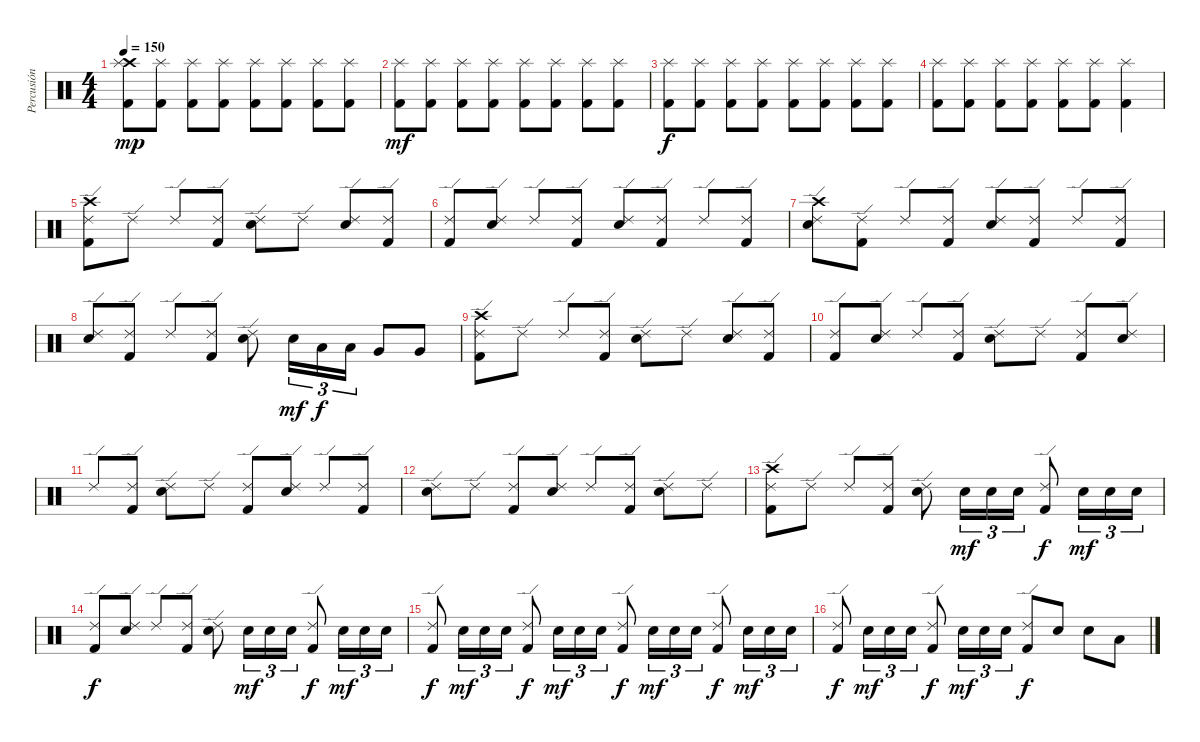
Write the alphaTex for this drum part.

\track ("Percusión" "Percusión") {instrument percussion}
\staff {score}
\articulation defaults
\ts (4 4)
\tempo 150
\clef neutral
\ks c
("Crash high (hit)" "Splash (hit)" "Kick (hit) 2").8{dy mp} ("Splash (hit)" "Kick (hit) 2").8 ("Splash (hit)" "Kick (hit) 2").8 ("Splash (hit)" "Kick (hit) 2").8 ("Splash (hit)" "Kick (hit) 2").8 ("Splash (hit)" "Kick (hit) 2").8 ("Splash (hit)" "Kick (hit) 2").8 ("Splash (hit)" "Kick (hit) 2").8 |
("Splash (hit)" "Kick (hit) 2").8{dy mf} ("Splash (hit)" "Kick (hit) 2").8 ("Splash (hit)" "Kick (hit) 2").8 ("Splash (hit)" "Kick (hit) 2").8 ("Splash (hit)" "Kick (hit) 2").8 ("Splash (hit)" "Kick (hit) 2").8 ("Splash (hit)" "Kick (hit) 2").8 ("Splash (hit)" "Kick (hit) 2").8 |
("Splash (hit)" "Kick (hit) 2").8{dy f} ("Splash (hit)" "Kick (hit) 2").8 ("Splash (hit)" "Kick (hit) 2").8 ("Splash (hit)" "Kick (hit) 2").8 ("Splash (hit)" "Kick (hit) 2").8 ("Splash (hit)" "Kick (hit) 2").8 ("Splash (hit)" "Kick (hit) 2").8 ("Splash (hit)" "Kick (hit) 2").8 |
("Splash (hit)" "Kick (hit) 2").8 ("Splash (hit)" "Kick (hit) 2").8 ("Splash (hit)" "Kick (hit) 2").8 ("Splash (hit)" "Kick (hit) 2").8 ("Splash (hit)" "Kick (hit) 2").8 ("Splash (hit)" "Kick (hit) 2").8 ("Splash (hit)" "Kick (hit) 2").4 |
("Crash high (hit)" "Ride (edge) 2" "Kick (hit) 2").8 "Ride (edge) 2".8 "Ride (edge) 2".8 ("Ride (edge) 2" "Kick (hit) 2").8 ("Ride (edge) 2" "Snare (hit) 2").8 "Ride (edge) 2".8 ("Ride (edge) 2" "Snare (hit) 2").8 ("Ride (edge) 2" "Kick (hit) 2").8 |
("Ride (edge) 2" "Kick (hit) 2").8 ("Ride (edge) 2" "Snare (hit) 2").8 "Ride (edge) 2".8 ("Ride (edge) 2" "Kick (hit) 2").8 ("Ride (edge) 2" "Snare (hit) 2").8 ("Ride (edge) 2" "Kick (hit) 2").8 "Ride (edge) 2".8 ("Ride (edge) 2" "Kick (hit) 2").8 |
("Crash high (hit)" "Ride (edge) 2" "Snare (hit) 2").8 ("Ride (edge) 2" "Kick (hit) 2").8 "Ride (edge) 2".8 ("Ride (edge) 2" "Kick (hit) 2").8 ("Ride (edge) 2" "Snare (hit) 2").8 ("Ride (edge) 2" "Kick (hit) 2").8 "Ride (edge) 2".8 ("Ride (edge) 2" "Kick (hit) 2").8 |
("Ride (edge) 2" "Snare (hit) 2").8 ("Ride (edge) 2" "Kick (hit) 2").8 "Ride (edge) 2".8 ("Ride (edge) 2" "Kick (hit) 2").8 ("Ride (edge) 2" "Snare (hit) 2").8 "Snare (hit) 2".16{tu (3 2) dy mf} "Low Tom (hit)".16{tu (3 2) dy f} "Low Tom (hit)".16{tu (3 2)} "Very Low Tom (hit)".8 "Very Low Tom (hit)".8 |
("Crash high (hit)" "Ride (edge) 2" "Kick (hit) 2").8 "Ride (edge) 2".8 "Ride (edge) 2".8 ("Ride (edge) 2" "Kick (hit) 2").8 ("Ride (edge) 2" "Snare (hit) 2").8 "Ride (edge) 2".8 ("Ride (edge) 2" "Snare (hit) 2").8 ("Ride (edge) 2" "Kick (hit) 2").8 |
("Ride (edge) 2" "Kick (hit) 2").8 ("Ride (edge) 2" "Snare (hit) 2").8 "Ride (edge) 2".8 ("Ride (edge) 2" "Kick (hit) 2").8 ("Ride (edge) 2" "Snare (hit) 2").8 "Ride (edge) 2".8 ("Ride (edge) 2" "Kick (hit) 2").8 ("Ride (edge) 2" "Snare (hit) 2").8 |
"Ride (edge) 2".8 ("Ride (edge) 2" "Kick (hit) 2").8 ("Ride (edge) 2" "Snare (hit) 2").8 "Ride (edge) 2".8 ("Ride (edge) 2" "Kick (hit) 2").8 ("Ride (edge) 2" "Snare (hit) 2").8 "Ride (edge) 2".8 ("Ride (edge) 2" "Kick (hit) 2").8 |
("Ride (edge) 2" "Snare (hit) 2").8 "Ride (edge) 2".8 ("Ride (edge) 2" "Kick (hit) 2").8 ("Ride (edge) 2" "Snare (hit) 2").8 "Ride (edge) 2".8 ("Ride (edge) 2" "Kick (hit) 2").8 ("Ride (edge) 2" "Snare (hit) 2").8 "Ride (edge) 2".8 |
("Crash high (hit)" "Ride (edge) 2" "Kick (hit) 2").8 "Ride (edge) 2".8 "Ride (edge) 2".8 ("Ride (edge) 2" "Kick (hit) 2").8 ("Ride (edge) 2" "Snare (hit) 2").8 "Snare (hit) 2".16{tu (3 2) dy mf} "Snare (hit) 2".16{tu (3 2)} "Snare (hit) 2".16{tu (3 2)} ("Ride (edge) 2" "Kick (hit) 2").8{dy f} "Snare (hit) 2".16{tu (3 2) dy mf} "Snare (hit) 2".16{tu (3 2)} "Snare (hit) 2".16{tu (3 2)} |
("Ride (edge) 2" "Kick (hit) 2").8{dy f} ("Ride (edge) 2" "Snare (hit) 2").8 "Ride (edge) 2".8 ("Ride (edge) 2" "Kick (hit) 2").8 ("Ride (edge) 2" "Snare (hit) 2").8 "Snare (hit) 2".16{tu (3 2) dy mf} "Snare (hit) 2".16{tu (3 2)} "Snare (hit) 2".16{tu (3 2)} ("Ride (edge) 2" "Kick (hit) 2").8{dy f} "Snare (hit) 2".16{tu (3 2) dy mf} "Snare (hit) 2".16{tu (3 2)} "Snare (hit) 2".16{tu (3 2)} |
("Ride (edge) 2" "Kick (hit) 2").8{dy f} "Snare (hit) 2".16{tu (3 2) dy mf} "Snare (hit) 2".16{tu (3 2)} "Snare (hit) 2".16{tu (3 2)} ("Ride (edge) 2" "Kick (hit) 2").8{dy f} "Snare (hit) 2".16{tu (3 2) dy mf} "Snare (hit) 2".16{tu (3 2)} "Snare (hit) 2".16{tu (3 2)} ("Ride (edge) 2" "Kick (hit) 2").8{dy f} "Snare (hit) 2".16{tu (3 2) dy mf} "Snare (hit) 2".16{tu (3 2)} "Snare (hit) 2".16{tu (3 2)} ("Ride (edge) 2" "Kick (hit) 2").8{dy f} "Snare (hit) 2".16{tu (3 2) dy mf} "Snare (hit) 2".16{tu (3 2)} "Snare (hit) 2".16{tu (3 2)} |
("Ride (edge) 2" "Kick (hit) 2").8{dy f} "Snare (hit) 2".16{tu (3 2) dy mf} "Snare (hit) 2".16{tu (3 2)} "Snare (hit) 2".16{tu (3 2)} ("Ride (edge) 2" "Kick (hit) 2").8{dy f} "Snare (hit) 2".16{tu (3 2) dy mf} "Snare (hit) 2".16{tu (3 2)} "Snare (hit) 2".16{tu (3 2)} ("Ride (edge) 2" "Kick (hit) 2").8{dy f} "Snare (hit) 2".8 "Snare (hit) 2".8 "Low Tom (hit)".8
